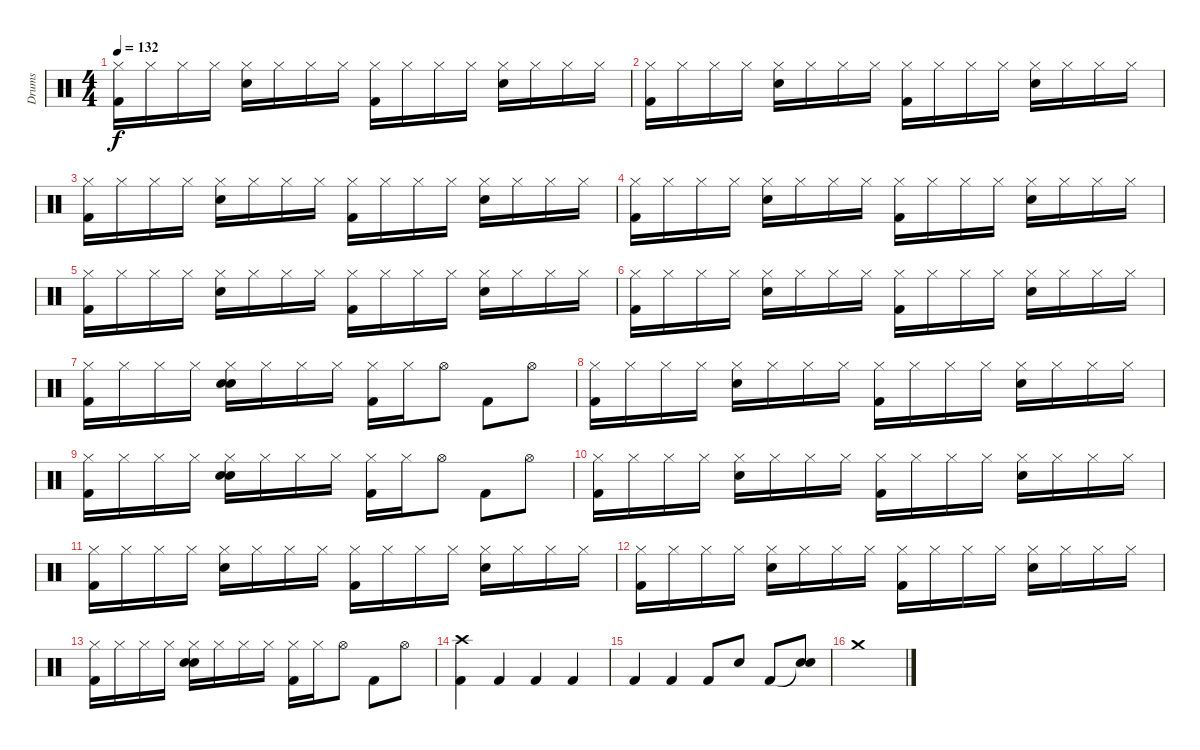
\track ("Drums" "Drums") {instrument percussion}
\staff {score}
\articulation defaults
\ts (4 4)
\tempo 132
\clef neutral
\ks c
("Hi-Hat (closed)" "Kick (hit) 2").16{dy f} "Hi-Hat (closed)".16 "Hi-Hat (closed)".16 "Hi-Hat (closed)".16 ("Hi-Hat (closed)" "Snare (hit) 2").16 "Hi-Hat (closed)".16 "Hi-Hat (closed)".16 "Hi-Hat (closed)".16 ("Hi-Hat (closed)" "Kick (hit) 2").16 "Hi-Hat (closed)".16 "Hi-Hat (closed)".16 "Hi-Hat (closed)".16 ("Hi-Hat (closed)" "Snare (hit) 2").16 "Hi-Hat (closed)".16 "Hi-Hat (closed)".16 "Hi-Hat (closed)".16 |
("Hi-Hat (closed)" "Kick (hit) 2").16 "Hi-Hat (closed)".16 "Hi-Hat (closed)".16 "Hi-Hat (closed)".16 ("Hi-Hat (closed)" "Snare (hit) 2").16 "Hi-Hat (closed)".16 "Hi-Hat (closed)".16 "Hi-Hat (closed)".16 ("Hi-Hat (closed)" "Kick (hit) 2").16 "Hi-Hat (closed)".16 "Hi-Hat (closed)".16 "Hi-Hat (closed)".16 ("Hi-Hat (closed)" "Snare (hit) 2").16 "Hi-Hat (closed)".16 "Hi-Hat (closed)".16 "Hi-Hat (closed)".16 |
("Hi-Hat (closed)" "Kick (hit) 2").16 "Hi-Hat (closed)".16 "Hi-Hat (closed)".16 "Hi-Hat (closed)".16 ("Hi-Hat (closed)" "Snare (hit) 2").16 "Hi-Hat (closed)".16 "Hi-Hat (closed)".16 "Hi-Hat (closed)".16 ("Hi-Hat (closed)" "Kick (hit) 2").16 "Hi-Hat (closed)".16 "Hi-Hat (closed)".16 "Hi-Hat (closed)".16 ("Hi-Hat (closed)" "Snare (hit) 2").16 "Hi-Hat (closed)".16 "Hi-Hat (closed)".16 "Hi-Hat (closed)".16 |
("Hi-Hat (closed)" "Kick (hit) 2").16 "Hi-Hat (closed)".16 "Hi-Hat (closed)".16 "Hi-Hat (closed)".16 ("Hi-Hat (closed)" "Snare (hit) 2").16 "Hi-Hat (closed)".16 "Hi-Hat (closed)".16 "Hi-Hat (closed)".16 ("Hi-Hat (closed)" "Kick (hit) 2").16 "Hi-Hat (closed)".16 "Hi-Hat (closed)".16 "Hi-Hat (closed)".16 ("Hi-Hat (closed)" "Snare (hit) 2").16 "Hi-Hat (closed)".16 "Hi-Hat (closed)".16 "Hi-Hat (closed)".16 |
("Hi-Hat (closed)" "Kick (hit) 2").16 "Hi-Hat (closed)".16 "Hi-Hat (closed)".16 "Hi-Hat (closed)".16 ("Hi-Hat (closed)" "Snare (hit) 2").16 "Hi-Hat (closed)".16 "Hi-Hat (closed)".16 "Hi-Hat (closed)".16 ("Hi-Hat (closed)" "Kick (hit) 2").16 "Hi-Hat (closed)".16 "Hi-Hat (closed)".16 "Hi-Hat (closed)".16 ("Hi-Hat (closed)" "Snare (hit) 2").16 "Hi-Hat (closed)".16 "Hi-Hat (closed)".16 "Hi-Hat (closed)".16 |
("Hi-Hat (closed)" "Kick (hit) 2").16 "Hi-Hat (closed)".16 "Hi-Hat (closed)".16 "Hi-Hat (closed)".16 ("Hi-Hat (closed)" "Snare (hit) 2").16 "Hi-Hat (closed)".16 "Hi-Hat (closed)".16 "Hi-Hat (closed)".16 ("Hi-Hat (closed)" "Kick (hit) 2").16 "Hi-Hat (closed)".16 "Hi-Hat (closed)".16 "Hi-Hat (closed)".16 ("Hi-Hat (closed)" "Snare (hit) 2").16 "Hi-Hat (closed)".16 "Hi-Hat (closed)".16 "Hi-Hat (closed)".16 |
("Hi-Hat (closed)" "Kick (hit) 2").16 "Hi-Hat (closed)".16 "Hi-Hat (closed)".16 "Hi-Hat (closed)".16 ("Hi-Hat (closed)" "Hand Clap (hit)" "Snare (hit) 2").16 "Hi-Hat (closed)".16 "Hi-Hat (closed)".16 "Hi-Hat (closed)".16 ("Hi-Hat (closed)" "Kick (hit) 2").16 "Hi-Hat (closed)".16 "Hi-Hat (open)".8 "Kick (hit) 2".8 "Hi-Hat (open)".8 |
("Hi-Hat (closed)" "Kick (hit) 2").16 "Hi-Hat (closed)".16 "Hi-Hat (closed)".16 "Hi-Hat (closed)".16 ("Hi-Hat (closed)" "Snare (hit) 2").16 "Hi-Hat (closed)".16 "Hi-Hat (closed)".16 "Hi-Hat (closed)".16 ("Hi-Hat (closed)" "Kick (hit) 2").16 "Hi-Hat (closed)".16 "Hi-Hat (closed)".16 "Hi-Hat (closed)".16 ("Hi-Hat (closed)" "Snare (hit) 2").16 "Hi-Hat (closed)".16 "Hi-Hat (closed)".16 "Hi-Hat (closed)".16 |
("Hi-Hat (closed)" "Kick (hit) 2").16 "Hi-Hat (closed)".16 "Hi-Hat (closed)".16 "Hi-Hat (closed)".16 ("Hi-Hat (closed)" "Hand Clap (hit)" "Snare (hit) 2").16 "Hi-Hat (closed)".16 "Hi-Hat (closed)".16 "Hi-Hat (closed)".16 ("Hi-Hat (closed)" "Kick (hit) 2").16 "Hi-Hat (closed)".16 "Hi-Hat (open)".8 "Kick (hit) 2".8 "Hi-Hat (open)".8 |
("Hi-Hat (closed)" "Kick (hit) 2").16 "Hi-Hat (closed)".16 "Hi-Hat (closed)".16 "Hi-Hat (closed)".16 ("Hi-Hat (closed)" "Snare (hit) 2").16 "Hi-Hat (closed)".16 "Hi-Hat (closed)".16 "Hi-Hat (closed)".16 ("Hi-Hat (closed)" "Kick (hit) 2").16 "Hi-Hat (closed)".16 "Hi-Hat (closed)".16 "Hi-Hat (closed)".16 ("Hi-Hat (closed)" "Snare (hit) 2").16 "Hi-Hat (closed)".16 "Hi-Hat (closed)".16 "Hi-Hat (closed)".16 |
("Hi-Hat (closed)" "Kick (hit) 2").16 "Hi-Hat (closed)".16 "Hi-Hat (closed)".16 "Hi-Hat (closed)".16 ("Hi-Hat (closed)" "Snare (hit) 2").16 "Hi-Hat (closed)".16 "Hi-Hat (closed)".16 "Hi-Hat (closed)".16 ("Hi-Hat (closed)" "Kick (hit) 2").16 "Hi-Hat (closed)".16 "Hi-Hat (closed)".16 "Hi-Hat (closed)".16 ("Hi-Hat (closed)" "Snare (hit) 2").16 "Hi-Hat (closed)".16 "Hi-Hat (closed)".16 "Hi-Hat (closed)".16 |
("Hi-Hat (closed)" "Kick (hit) 2").16 "Hi-Hat (closed)".16 "Hi-Hat (closed)".16 "Hi-Hat (closed)".16 ("Hi-Hat (closed)" "Snare (hit) 2").16 "Hi-Hat (closed)".16 "Hi-Hat (closed)".16 "Hi-Hat (closed)".16 ("Hi-Hat (closed)" "Kick (hit) 2").16 "Hi-Hat (closed)".16 "Hi-Hat (closed)".16 "Hi-Hat (closed)".16 ("Hi-Hat (closed)" "Snare (hit) 2").16 "Hi-Hat (closed)".16 "Hi-Hat (closed)".16 "Hi-Hat (closed)".16 |
("Hi-Hat (closed)" "Kick (hit) 2").16 "Hi-Hat (closed)".16 "Hi-Hat (closed)".16 "Hi-Hat (closed)".16 ("Hi-Hat (closed)" "Hand Clap (hit)" "Snare (hit) 2").16 "Hi-Hat (closed)".16 "Hi-Hat (closed)".16 "Hi-Hat (closed)".16 ("Hi-Hat (closed)" "Kick (hit) 2").16 "Hi-Hat (closed)".16 "Hi-Hat (open)".8 "Kick (hit) 2".8 "Hi-Hat (open)".8 |
("Crash high (hit)" "Kick (hit) 2").4 "Kick (hit) 2".4 "Kick (hit) 2".4 "Kick (hit) 2".4 |
"Kick (hit) 2".4 "Kick (hit) 2".4 "Kick (hit) 2".8 "Snare (hit) 2".8 "Kick (hit) 2".8 ("Snare (hit)"{t} "Snare (hit) 2").8 |
"Crash medium (hit)".1
